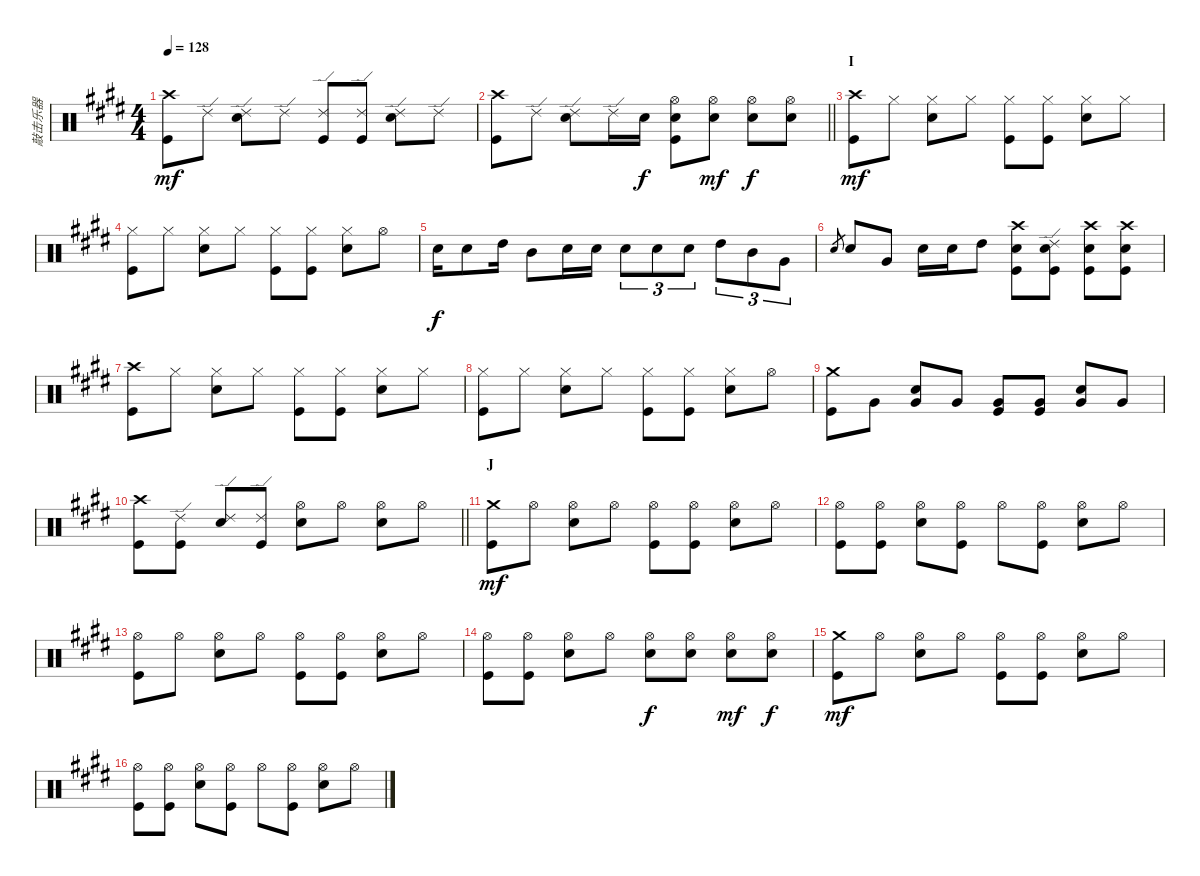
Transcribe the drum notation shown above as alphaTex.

\track ("敲击乐器" "敲击乐器") {instrument percussion}
\staff {score}
\articulation defaults
\ts (4 4)
\tempo 128
\clef neutral
\ks e
("Crash high (hit)" "Kick (hit)").8{dy mf} "Ride (edge) 2".8 ("Ride (edge) 2" "Snare (hit) 2").8 "Ride (edge) 2".8 ("Ride (edge) 2" "Kick (hit)").8 ("Ride (edge) 2" "Kick (hit)").8 ("Ride (edge) 2" "Snare (hit) 2").8 "Ride (edge) 2".8 |
\barLineRight lightlight
("Crash high (hit)" "Kick (hit)").8 "Ride (edge) 2".8 ("Ride (edge) 2" "Snare (hit) 2").8 "Ride (edge) 2".16 "Snare (hit) 2".16{dy f} ("Hi-Hat (open)" "Snare (hit) 2" "Kick (hit)").8 ("Hi-Hat (open)" "Snare (hit) 2").8{dy mf} ("Hi-Hat (open)" "Snare (hit) 2").8{dy f} ("Hi-Hat (open)" "Snare (hit) 2").8 |
\section ("" "I")
("Crash high (hit)" "Kick (hit)").8{dy mf} "Hi-Hat (closed)".8 ("Hi-Hat (closed)" "Snare (hit) 2").8 "Hi-Hat (closed)".8 ("Hi-Hat (closed)" "Kick (hit)").8 ("Hi-Hat (closed)" "Kick (hit)").8 ("Hi-Hat (closed)" "Snare (hit) 2").8 "Hi-Hat (closed)".8 |
("Hi-Hat (closed)" "Kick (hit)").8 "Hi-Hat (closed)".8 ("Hi-Hat (closed)" "Snare (hit) 2").8 "Hi-Hat (closed)".8 ("Hi-Hat (closed)" "Kick (hit)").8 ("Hi-Hat (closed)" "Kick (hit)").8 ("Hi-Hat (closed)" "Snare (hit) 2").8 "Hi-Hat (open)".8 |
"Snare (hit) 2".16{dy f} "Snare (hit) 2".8 "High Tom (hit)".16 "Mid Tom (hit)".8 "Snare (hit) 2".16 "Snare (hit) 2".16 "Snare (hit) 2".8{tu (3 2)} "Snare (hit) 2".8{tu (3 2)} "Snare (hit) 2".8{tu (3 2)} "High Tom (hit)".8{tu (3 2)} "Mid Tom (hit)".8{tu (3 2)} "Very Low Tom (hit)".8{tu (3 2)} |
"Snare (hit) 2".8{gr} "Snare (hit) 2".8 "Very Low Tom (hit)".8 "Snare (hit) 2".16 "Snare (hit) 2".16 "High Tom (hit)".8 ("Crash high (hit)" "Snare (hit) 2" "Kick (hit)").8 ("Ride (edge) 2" "Snare (hit) 2" "Kick (hit)").8 ("Crash high (hit)" "Snare (hit) 2" "Kick (hit)").8 ("Crash high (hit)" "Snare (hit) 2" "Kick (hit)").8 |
("Crash high (hit)" "Kick (hit)").8 "Hi-Hat (closed)".8 ("Hi-Hat (closed)" "Snare (hit) 2").8 "Hi-Hat (closed)".8 ("Hi-Hat (closed)" "Kick (hit)").8 ("Hi-Hat (closed)" "Kick (hit)").8 ("Hi-Hat (closed)" "Snare (hit) 2").8 "Hi-Hat (closed)".8 |
("Hi-Hat (closed)" "Kick (hit)").8 "Hi-Hat (closed)".8 ("Hi-Hat (closed)" "Snare (hit) 2").8 "Hi-Hat (closed)".8 ("Hi-Hat (closed)" "Kick (hit)").8 ("Hi-Hat (closed)" "Kick (hit)").8 ("Hi-Hat (closed)" "Snare (hit) 2").8 "Hi-Hat (open)".8 |
("Crash medium (hit)" "Kick (hit)").8 "Very Low Tom (hit)".8 ("Very Low Tom (hit)" "Snare (hit) 2").8 "Very Low Tom (hit)".8 ("Very Low Tom (hit)" "Kick (hit)").8 ("Very Low Tom (hit)" "Kick (hit)").8 ("Very Low Tom (hit)" "Snare (hit) 2").8 "Very Low Tom (hit)".8 |
\barLineRight lightlight
("Crash high (hit)" "Kick (hit)").8 ("Ride (edge) 2" "Kick (hit)").8 ("Ride (edge) 2" "Snare (hit) 2").8 ("Ride (edge) 2" "Kick (hit)").8 ("Hi-Hat (open)" "Snare (hit) 2").8 "Hi-Hat (open)".8 ("Hi-Hat (open)" "Snare (hit) 2").8 "Hi-Hat (open)".8 |
\section ("" "J")
("Crash medium (hit)" "Kick (hit)").8{dy mf} "Hi-Hat (open)".8 ("Hi-Hat (open)" "Snare (hit) 2").8 "Hi-Hat (open)".8 ("Hi-Hat (open)" "Kick (hit)").8 ("Hi-Hat (open)" "Kick (hit)").8 ("Hi-Hat (open)" "Snare (hit) 2").8 "Hi-Hat (open)".8 |
("Hi-Hat (open)" "Kick (hit)").8 ("Hi-Hat (open)" "Kick (hit)").8 ("Hi-Hat (open)" "Snare (hit) 2").8 ("Hi-Hat (open)" "Kick (hit)").8 "Hi-Hat (open)".8 ("Hi-Hat (open)" "Kick (hit)").8 ("Hi-Hat (open)" "Snare (hit) 2").8 "Hi-Hat (open)".8 |
("Hi-Hat (open)" "Kick (hit)").8 "Hi-Hat (open)".8 ("Hi-Hat (open)" "Snare (hit) 2").8 "Hi-Hat (open)".8 ("Hi-Hat (open)" "Kick (hit)").8 ("Hi-Hat (open)" "Kick (hit)").8 ("Hi-Hat (open)" "Snare (hit) 2").8 "Hi-Hat (open)".8 |
("Hi-Hat (open)" "Kick (hit)").8 ("Hi-Hat (open)" "Kick (hit)").8 ("Hi-Hat (open)" "Snare (hit) 2").8 "Hi-Hat (open)".8 ("Hi-Hat (open)" "Snare (hit) 2").8{dy f} ("Hi-Hat (open)" "Snare (hit) 2").8 ("Hi-Hat (open)" "Snare (hit) 2").8{dy mf} ("Hi-Hat (open)" "Snare (hit) 2").8{dy f} |
("Crash medium (hit)" "Kick (hit)").8{dy mf} "Hi-Hat (open)".8 ("Hi-Hat (open)" "Snare (hit) 2").8 "Hi-Hat (open)".8 ("Hi-Hat (open)" "Kick (hit)").8 ("Hi-Hat (open)" "Kick (hit)").8 ("Hi-Hat (open)" "Snare (hit) 2").8 "Hi-Hat (open)".8 |
("Hi-Hat (open)" "Kick (hit)").8 ("Hi-Hat (open)" "Kick (hit)").8 ("Hi-Hat (open)" "Snare (hit) 2").8 ("Hi-Hat (open)" "Kick (hit)").8 "Hi-Hat (open)".8 ("Hi-Hat (open)" "Kick (hit)").8 ("Hi-Hat (open)" "Snare (hit) 2").8 "Hi-Hat (open)".8
